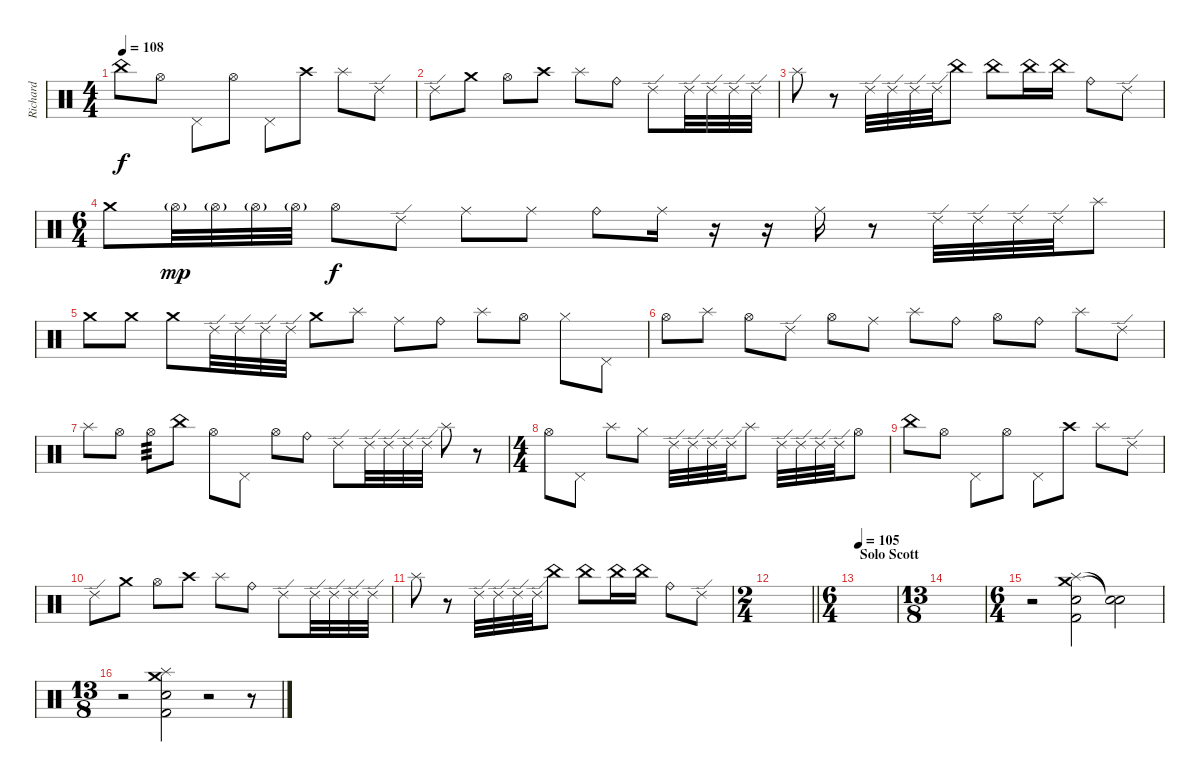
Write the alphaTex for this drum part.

\track ("Richard" "Richard") {instrument percussion}
\staff {score}
\articulation defaults
\ts (4 4)
\tempo 108
\clef neutral
\ks c "China (hit)".8{dy f} "Hi-Hat (open)".8 "Pedal Hi-Hat (hit)".8 "Hi-Hat (open)".8 "Pedal Hi-Hat (hit)".8 "Crash high (hit)".8 "Splash (hit)".8 "Ride (edge) 2".8
|
"Ride (edge) 2".8 "Crash medium (hit)".8 "Hi-Hat (open)".8 "Crash high (hit)".8 "Splash (hit)".8 "Ride (bell)".8 "Ride (edge) 2".8 "Ride (edge) 2".32 "Ride (edge) 2".32 "Ride (edge) 2".32 "Ride (edge) 2".32 |
"Splash (hit)".8 r.8 "Ride (edge) 2".32 "Ride (edge) 2".32 "Ride (edge) 2".32 "Ride (edge) 2".32 "China (hit)".8 "China (hit)".8 "China (hit)".16 "China (hit)".16 "Ride (bell)".8 "Ride (edge) 2".8 |
\ts (6 4)
"Crash medium (hit)".8 "Hi-Hat (open)"{g}.32{dy mp} "Hi-Hat (open)"{g}.32 "Hi-Hat (open)"{g}.32 "Hi-Hat (open)"{g}.32 "Hi-Hat (open)".8{dy f} "Ride (edge) 2".8 "Ride (middle)".8 "Ride (middle)".8 "Ride (bell)".8 "Ride (middle)".16 r.16 r.16 "Ride (middle)".16 r.8 "Ride (edge) 2".32 "Ride (edge) 2".32 "Ride (edge) 2".32 "Ride (edge) 2".32 "Splash (hit)".8 |
"Crash medium (hit)".8 "Crash medium (hit)".8 "Crash medium (hit)".8 "Ride (edge) 2".32 "Ride (edge) 2".32 "Ride (edge) 2".32 "Ride (edge) 2".32 "Crash medium (hit)".8 "Splash (hit)".8 "Ride (middle)".8 "Ride (bell)".8 "Splash (hit)".8 "Hi-Hat (open)".8 "Hi-Hat (closed)".8 "Pedal Hi-Hat (hit)".8 |
"Hi-Hat (open)".8 "Splash (hit)".8 "Hi-Hat (open)".8 "Ride (edge) 2".8 "Hi-Hat (open)".8 "Ride (middle)".8 "Splash (hit)".8 "Ride (bell)".8 "Hi-Hat (open)".8 "Ride (bell)".8 "Splash (hit)".8 "Ride (edge) 2".8 |
"Splash (hit)".8 "Hi-Hat (open)".8 "Hi-Hat (open)".8{tp 3} "China (hit)".8 "Hi-Hat (open)".8 "Pedal Hi-Hat (hit)".8 "Hi-Hat (open)".8 "Ride (bell)".8 "Ride (edge) 2".8 "Ride (edge) 2".32 "Ride (edge) 2".32 "Ride (edge) 2".32 "Ride (edge) 2".32 "Splash (hit)".8 r.8 |
\ts (4 4)
"Hi-Hat (open)".8 "Pedal Hi-Hat (hit)".8 "Splash (hit)".8 "Hi-Hat (closed)".8 "Ride (edge) 2".32 "Ride (edge) 2".32 "Ride (edge) 2".32 "Ride (edge) 2".32 "Splash (hit)".8 "Ride (edge) 2".32 "Ride (edge) 2".32 "Ride (edge) 2".32 "Ride (edge) 2".32 "Hi-Hat (open)".8 |
"China (hit)".8 "Hi-Hat (open)".8 "Pedal Hi-Hat (hit)".8 "Hi-Hat (open)".8 "Pedal Hi-Hat (hit)".8 "Crash high (hit)".8 "Splash (hit)".8 "Ride (edge) 2".8 |
"Ride (edge) 2".8 "Crash medium (hit)".8 "Hi-Hat (open)".8 "Crash high (hit)".8 "Splash (hit)".8 "Ride (bell)".8 "Ride (edge) 2".8 "Ride (edge) 2".32 "Ride (edge) 2".32 "Ride (edge) 2".32 "Ride (edge) 2".32 |
"Splash (hit)".8 r.8 "Ride (edge) 2".32 "Ride (edge) 2".32 "Ride (edge) 2".32 "Ride (edge) 2".32 "China (hit)".8 "China (hit)".8 "China (hit)".16 "China (hit)".16 "Ride (bell)".8 "Ride (edge) 2".8 |
\ts (2 4)
\barLineRight lightlight
|
\ts (6 4)
\section ("" "Solo Scott")
\tempo 105
|
\ts (13 8)
|
\ts (6 4)
r.2 ("Crash medium (hit)" "Splash (hit)" "Electric Snare (hit)" "Kick (hit) 2").2{volume 16 balance 8} ("Snare (hit)"{t} "Snare (hit)"{t}).2 |
\ts (13 8)
r.2 ("Crash medium (hit)" "Splash (hit)" "Electric Snare (hit)" "Kick (hit) 2").2 r.2 r.8
